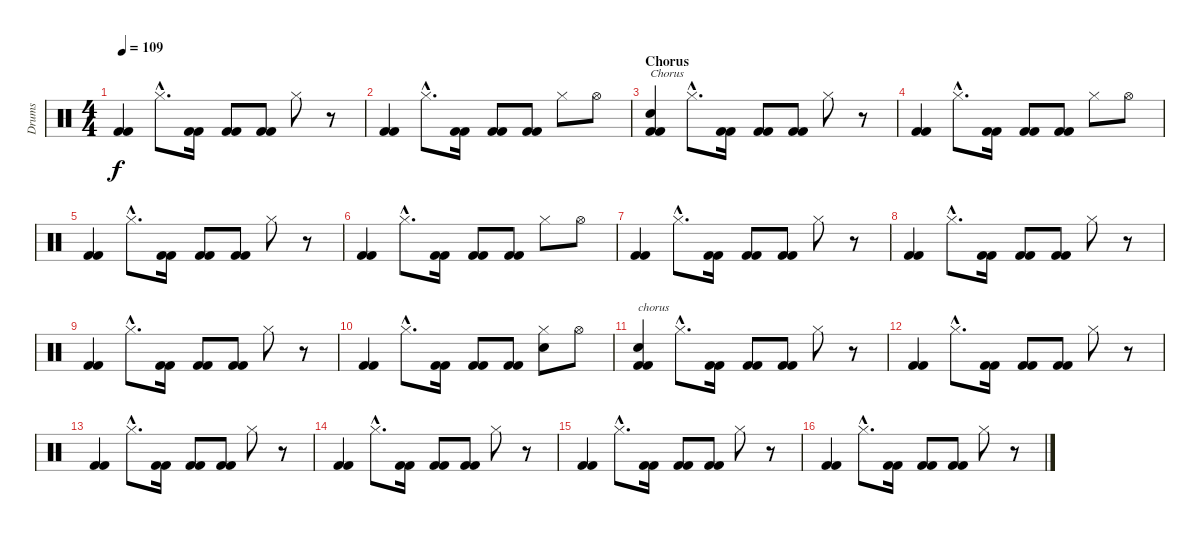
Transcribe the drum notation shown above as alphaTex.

\track ("Drums" "Drums") {instrument percussion}
\staff {score}
\articulation defaults
\ts (4 4)
\tempo 109
\clef neutral
\ks c
("Kick (hit) 2" "Kick (hit) 2").4{dy f} "Hi-Hat (closed)"{hac}.8{d} ("Kick (hit) 2" "Kick (hit) 2").16 ("Kick (hit) 2" "Kick (hit) 2").8 ("Kick (hit) 2" "Kick (hit) 2").8 "Hi-Hat (closed)".8 r.8 |
("Kick (hit) 2" "Kick (hit) 2").4 "Hi-Hat (closed)"{hac}.8{d} ("Kick (hit) 2" "Kick (hit) 2").16 ("Kick (hit) 2" "Kick (hit) 2").8 ("Kick (hit) 2" "Kick (hit) 2").8 "Hi-Hat (closed)".8 "Hi-Hat (open)".8 |
\section ("" "Chorus")
("Snare (hit) 2" "Kick (hit) 2" "Kick (hit) 2").4{txt "Chorus" volume 9} "Hi-Hat (closed)"{hac}.8{d} ("Kick (hit) 2" "Kick (hit) 2").16 ("Kick (hit) 2" "Kick (hit) 2").8 ("Kick (hit) 2" "Kick (hit) 2").8 "Hi-Hat (closed)".8 r.8 |
("Kick (hit) 2" "Kick (hit) 2").4 "Hi-Hat (closed)"{hac}.8{d} ("Kick (hit) 2" "Kick (hit) 2").16 ("Kick (hit) 2" "Kick (hit) 2").8 ("Kick (hit) 2" "Kick (hit) 2").8 "Hi-Hat (closed)".8 "Hi-Hat (open)".8 |
("Kick (hit) 2" "Kick (hit) 2").4 "Hi-Hat (closed)"{hac}.8{d} ("Kick (hit) 2" "Kick (hit) 2").16 ("Kick (hit) 2" "Kick (hit) 2").8 ("Kick (hit) 2" "Kick (hit) 2").8 "Hi-Hat (closed)".8 r.8 |
("Kick (hit) 2" "Kick (hit) 2").4 "Hi-Hat (closed)"{hac}.8{d} ("Kick (hit) 2" "Kick (hit) 2").16 ("Kick (hit) 2" "Kick (hit) 2").8 ("Kick (hit) 2" "Kick (hit) 2").8 "Hi-Hat (closed)".8 "Hi-Hat (open)".8 |
("Kick (hit) 2" "Kick (hit) 2").4 "Hi-Hat (closed)"{hac}.8{d} ("Kick (hit) 2" "Kick (hit) 2").16 ("Kick (hit) 2" "Kick (hit) 2").8 ("Kick (hit) 2" "Kick (hit) 2").8 "Hi-Hat (closed)".8 r.8 |
("Kick (hit) 2" "Kick (hit) 2").4 "Hi-Hat (closed)"{hac}.8{d} ("Kick (hit) 2" "Kick (hit) 2").16 ("Kick (hit) 2" "Kick (hit) 2").8 ("Kick (hit) 2" "Kick (hit) 2").8 "Hi-Hat (closed)".8 r.8 |
("Kick (hit) 2" "Kick (hit) 2").4 "Hi-Hat (closed)"{hac}.8{d} ("Kick (hit) 2" "Kick (hit) 2").16 ("Kick (hit) 2" "Kick (hit) 2").8 ("Kick (hit) 2" "Kick (hit) 2").8 "Hi-Hat (closed)".8 r.8 |
("Kick (hit) 2" "Kick (hit) 2").4 "Hi-Hat (closed)"{hac}.8{d} ("Kick (hit) 2" "Kick (hit) 2").16 ("Kick (hit) 2" "Kick (hit) 2").8 ("Kick (hit) 2" "Kick (hit) 2").8 ("Hi-Hat (closed)" "Snare (hit) 2").8{volume 9} "Hi-Hat (open)".8 |
("Snare (hit) 2" "Kick (hit) 2" "Kick (hit) 2").4{txt "chorus" volume 9} "Hi-Hat (closed)"{hac}.8{d} ("Kick (hit) 2" "Kick (hit) 2").16 ("Kick (hit) 2" "Kick (hit) 2").8 ("Kick (hit) 2" "Kick (hit) 2").8 "Hi-Hat (closed)".8 r.8 |
("Kick (hit) 2" "Kick (hit) 2").4 "Hi-Hat (closed)"{hac}.8{d} ("Kick (hit) 2" "Kick (hit) 2").16 ("Kick (hit) 2" "Kick (hit) 2").8 ("Kick (hit) 2" "Kick (hit) 2").8 "Hi-Hat (closed)".8 r.8 |
("Kick (hit) 2" "Kick (hit) 2").4 "Hi-Hat (closed)"{hac}.8{d} ("Kick (hit) 2" "Kick (hit) 2").16 ("Kick (hit) 2" "Kick (hit) 2").8 ("Kick (hit) 2" "Kick (hit) 2").8 "Hi-Hat (closed)".8 r.8 |
("Kick (hit) 2" "Kick (hit) 2").4 "Hi-Hat (closed)"{hac}.8{d} ("Kick (hit) 2" "Kick (hit) 2").16 ("Kick (hit) 2" "Kick (hit) 2").8 ("Kick (hit) 2" "Kick (hit) 2").8 "Hi-Hat (closed)".8 r.8 |
("Kick (hit) 2" "Kick (hit) 2").4 "Hi-Hat (closed)"{hac}.8{d} ("Kick (hit) 2" "Kick (hit) 2").16 ("Kick (hit) 2" "Kick (hit) 2").8 ("Kick (hit) 2" "Kick (hit) 2").8 "Hi-Hat (closed)".8 r.8 |
("Kick (hit) 2" "Kick (hit) 2").4 "Hi-Hat (closed)"{hac}.8{d} ("Kick (hit) 2" "Kick (hit) 2").16 ("Kick (hit) 2" "Kick (hit) 2").8 ("Kick (hit) 2" "Kick (hit) 2").8 "Hi-Hat (closed)".8 r.8
